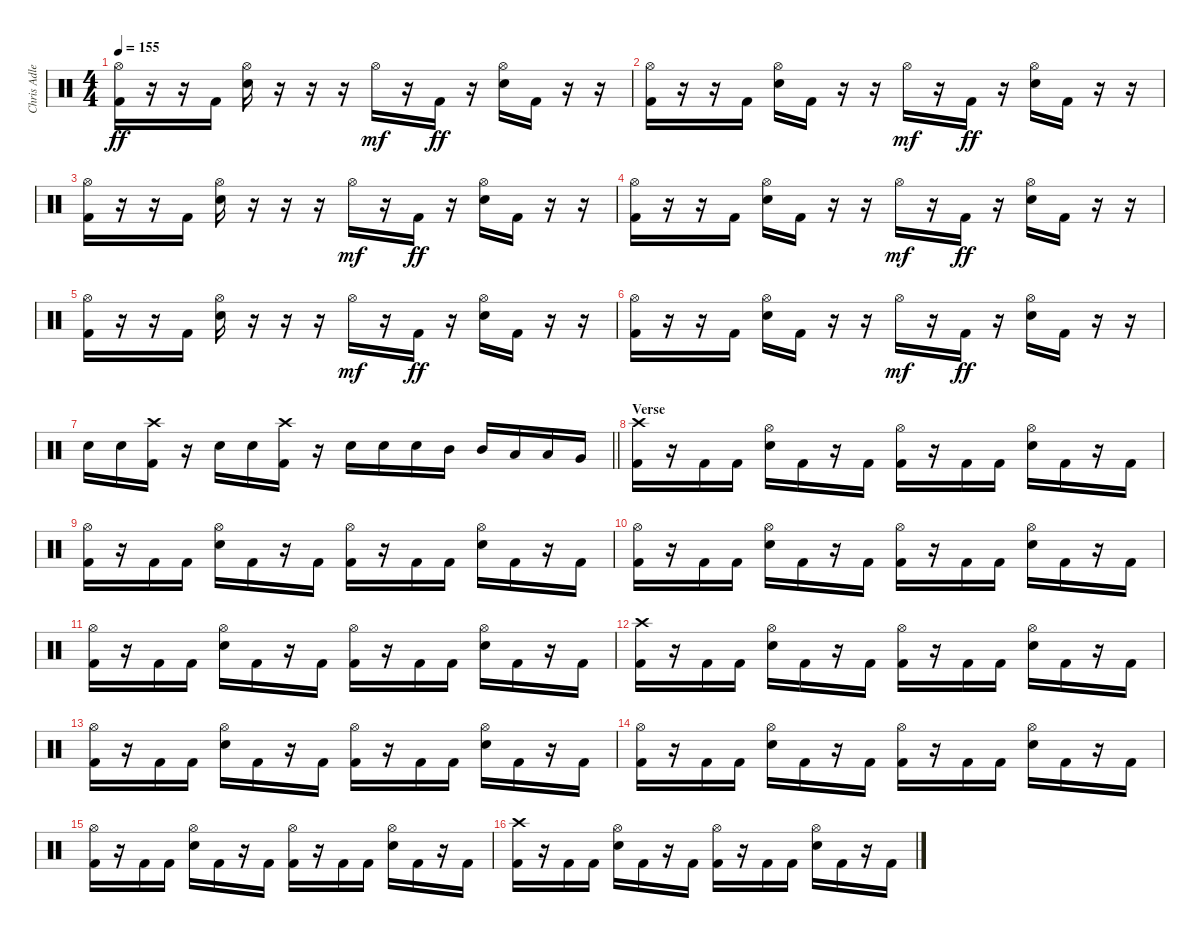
\track ("Chris Adler" "Chris Adle") {instrument percussion}
\staff {score}
\articulation defaults
\ts (4 4)
\tempo 155
\clef neutral
\ks c
("Hi-Hat (open)" "Kick (hit) 2").16{dy ff} r.16 r.16 "Kick (hit) 2".16 ("Hi-Hat (open)" "Snare (hit) 2").16 r.16 r.16 r.16 "Hi-Hat (open)".16{dy mf} r.16 "Kick (hit) 2".16{dy ff} r.16 ("Hi-Hat (open)" "Snare (hit) 2").16 "Kick (hit) 2".16 r.16 r.16 |
("Hi-Hat (open)" "Kick (hit) 2").16 r.16 r.16 "Kick (hit) 2".16 ("Hi-Hat (open)" "Snare (hit) 2").16 "Kick (hit) 2".16 r.16 r.16 "Hi-Hat (open)".16{dy mf} r.16 "Kick (hit) 2".16{dy ff} r.16 ("Hi-Hat (open)" "Snare (hit) 2").16 "Kick (hit) 2".16 r.16 r.16 |
("Hi-Hat (open)" "Kick (hit) 2").16 r.16 r.16 "Kick (hit) 2".16 ("Hi-Hat (open)" "Snare (hit) 2").16 r.16 r.16 r.16 "Hi-Hat (open)".16{dy mf} r.16 "Kick (hit) 2".16{dy ff} r.16 ("Hi-Hat (open)" "Snare (hit) 2").16 "Kick (hit) 2".16 r.16 r.16 |
("Hi-Hat (open)" "Kick (hit) 2").16 r.16 r.16 "Kick (hit) 2".16 ("Hi-Hat (open)" "Snare (hit) 2").16 "Kick (hit) 2".16 r.16 r.16 "Hi-Hat (open)".16{dy mf} r.16 "Kick (hit) 2".16{dy ff} r.16 ("Hi-Hat (open)" "Snare (hit) 2").16 "Kick (hit) 2".16 r.16 r.16 |
("Hi-Hat (open)" "Kick (hit) 2").16 r.16 r.16 "Kick (hit) 2".16 ("Hi-Hat (open)" "Snare (hit) 2").16 r.16 r.16 r.16 "Hi-Hat (open)".16{dy mf} r.16 "Kick (hit) 2".16{dy ff} r.16 ("Hi-Hat (open)" "Snare (hit) 2").16 "Kick (hit) 2".16 r.16 r.16 |
("Hi-Hat (open)" "Kick (hit) 2").16 r.16 r.16 "Kick (hit) 2".16 ("Hi-Hat (open)" "Snare (hit) 2").16 "Kick (hit) 2".16 r.16 r.16 "Hi-Hat (open)".16{dy mf} r.16 "Kick (hit) 2".16{dy ff} r.16 ("Hi-Hat (open)" "Snare (hit) 2").16 "Kick (hit) 2".16 r.16 r.16 |
\barLineRight lightlight "Snare (hit) 2".16 "Snare (hit) 2".16
("Crash high (hit)" "Kick (hit) 2").16 r.16 "Snare (hit) 2".16 "Snare (hit) 2".16 ("Crash high (hit)" "Kick (hit) 2").16 r.16 "Snare (hit) 2".16 "Snare (hit) 2".16 "Snare (hit) 2".16 "Mid Tom (hit)".16 "Mid Tom (hit)".16 "Low Tom (hit)".16 "Low Tom (hit)".16 "Very Low Tom (hit)".16 |
\section ("" "Verse")
("Crash high (hit)" "Kick (hit) 2").16 r.16 "Kick (hit) 2".16 "Kick (hit) 2".16 ("Hi-Hat (open)" "Snare (hit) 2").16 "Kick (hit) 2".16 r.16 "Kick (hit) 2".16 ("Hi-Hat (open)" "Kick (hit) 2").16 r.16 "Kick (hit) 2".16 "Kick (hit) 2".16 ("Hi-Hat (open)" "Snare (hit) 2").16 "Kick (hit) 2".16 r.16 "Kick (hit) 2".16 |
("Hi-Hat (open)" "Kick (hit) 2").16 r.16 "Kick (hit) 2".16 "Kick (hit) 2".16 ("Hi-Hat (open)" "Snare (hit) 2").16 "Kick (hit) 2".16 r.16 "Kick (hit) 2".16 ("Hi-Hat (open)" "Kick (hit) 2").16 r.16 "Kick (hit) 2".16 "Kick (hit) 2".16 ("Hi-Hat (open)" "Snare (hit) 2").16 "Kick (hit) 2".16 r.16 "Kick (hit) 2".16 |
("Hi-Hat (open)" "Kick (hit) 2").16 r.16 "Kick (hit) 2".16 "Kick (hit) 2".16 ("Hi-Hat (open)" "Snare (hit) 2").16 "Kick (hit) 2".16 r.16 "Kick (hit) 2".16 ("Hi-Hat (open)" "Kick (hit) 2").16 r.16 "Kick (hit) 2".16 "Kick (hit) 2".16 ("Hi-Hat (open)" "Snare (hit) 2").16 "Kick (hit) 2".16 r.16 "Kick (hit) 2".16 |
("Hi-Hat (open)" "Kick (hit) 2").16 r.16 "Kick (hit) 2".16 "Kick (hit) 2".16 ("Hi-Hat (open)" "Snare (hit) 2").16 "Kick (hit) 2".16 r.16 "Kick (hit) 2".16 ("Hi-Hat (open)" "Kick (hit) 2").16 r.16 "Kick (hit) 2".16 "Kick (hit) 2".16 ("Hi-Hat (open)" "Snare (hit) 2").16 "Kick (hit) 2".16 r.16 "Kick (hit) 2".16 |
("Crash high (hit)" "Kick (hit) 2").16 r.16 "Kick (hit) 2".16 "Kick (hit) 2".16 ("Hi-Hat (open)" "Snare (hit) 2").16 "Kick (hit) 2".16 r.16 "Kick (hit) 2".16 ("Hi-Hat (open)" "Kick (hit) 2").16 r.16 "Kick (hit) 2".16 "Kick (hit) 2".16 ("Hi-Hat (open)" "Snare (hit) 2").16 "Kick (hit) 2".16 r.16 "Kick (hit) 2".16 |
("Hi-Hat (open)" "Kick (hit) 2").16 r.16 "Kick (hit) 2".16 "Kick (hit) 2".16 ("Hi-Hat (open)" "Snare (hit) 2").16 "Kick (hit) 2".16 r.16 "Kick (hit) 2".16 ("Hi-Hat (open)" "Kick (hit) 2").16 r.16 "Kick (hit) 2".16 "Kick (hit) 2".16 ("Hi-Hat (open)" "Snare (hit) 2").16 "Kick (hit) 2".16 r.16 "Kick (hit) 2".16 |
("Hi-Hat (open)" "Kick (hit) 2").16 r.16 "Kick (hit) 2".16 "Kick (hit) 2".16 ("Hi-Hat (open)" "Snare (hit) 2").16 "Kick (hit) 2".16 r.16 "Kick (hit) 2".16 ("Hi-Hat (open)" "Kick (hit) 2").16 r.16 "Kick (hit) 2".16 "Kick (hit) 2".16 ("Hi-Hat (open)" "Snare (hit) 2").16 "Kick (hit) 2".16 r.16 "Kick (hit) 2".16 |
("Hi-Hat (open)" "Kick (hit) 2").16 r.16 "Kick (hit) 2".16 "Kick (hit) 2".16 ("Hi-Hat (open)" "Snare (hit) 2").16 "Kick (hit) 2".16 r.16 "Kick (hit) 2".16 ("Hi-Hat (open)" "Kick (hit) 2").16 r.16 "Kick (hit) 2".16 "Kick (hit) 2".16 ("Hi-Hat (open)" "Snare (hit) 2").16 "Kick (hit) 2".16 r.16 "Kick (hit) 2".16 |
("Crash high (hit)" "Kick (hit) 2").16 r.16 "Kick (hit) 2".16 "Kick (hit) 2".16 ("Hi-Hat (open)" "Snare (hit) 2").16 "Kick (hit) 2".16 r.16 "Kick (hit) 2".16 ("Hi-Hat (open)" "Kick (hit) 2").16 r.16 "Kick (hit) 2".16 "Kick (hit) 2".16 ("Hi-Hat (open)" "Snare (hit) 2").16 "Kick (hit) 2".16 r.16 "Kick (hit) 2".16
